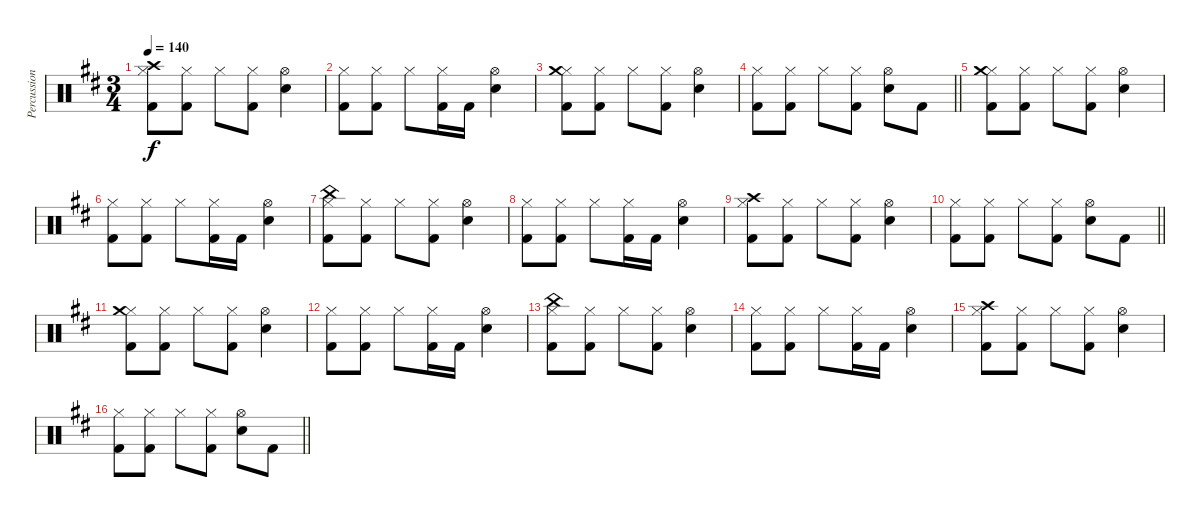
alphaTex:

\track ("Percussions" "Percussion") {instrument percussion}
\staff {score}
\articulation defaults
\ts (3 4)
\tempo 140
\clef neutral
\ks d
("Hi-Hat (closed)" "Crash high (hit)" "Kick (hit) 2").8{dy f volume 14 balance 8} ("Hi-Hat (closed)" "Kick (hit) 2").8 "Hi-Hat (closed)".8 ("Hi-Hat (closed)" "Kick (hit) 2").8 ("Hi-Hat (open)" "Snare (hit) 2").4 |
("Hi-Hat (closed)" "Kick (hit) 2").8 ("Hi-Hat (closed)" "Kick (hit) 2").8 "Hi-Hat (closed)".8 ("Hi-Hat (closed)" "Kick (hit) 2").16 "Kick (hit) 2".16 ("Hi-Hat (open)" "Snare (hit) 2").4 |
("Hi-Hat (closed)" "Crash medium (hit)" "Kick (hit) 2").8 ("Hi-Hat (closed)" "Kick (hit) 2").8 "Hi-Hat (closed)".8 ("Hi-Hat (closed)" "Kick (hit) 2").8 ("Hi-Hat (open)" "Snare (hit) 2").4 |
\barLineRight lightlight
("Hi-Hat (closed)" "Kick (hit) 2").8 ("Hi-Hat (closed)" "Kick (hit) 2").8 "Hi-Hat (closed)".8 ("Hi-Hat (closed)" "Kick (hit) 2").8 ("Hi-Hat (open)" "Snare (hit) 2").8 "Kick (hit) 2".8 |
("Hi-Hat (closed)" "Crash medium (hit)" "Kick (hit) 2").8 ("Hi-Hat (closed)" "Kick (hit) 2").8 "Hi-Hat (closed)".8 ("Hi-Hat (closed)" "Kick (hit) 2").8 ("Hi-Hat (open)" "Snare (hit) 2").4 |
("Hi-Hat (closed)" "Kick (hit) 2").8 ("Hi-Hat (closed)" "Kick (hit) 2").8 "Hi-Hat (closed)".8 ("Hi-Hat (closed)" "Kick (hit) 2").16 "Kick (hit) 2".16 ("Hi-Hat (open)" "Snare (hit) 2").4 |
("Hi-Hat (closed)" "China (hit)" "Kick (hit) 2").8 ("Hi-Hat (closed)" "Kick (hit) 2").8 "Hi-Hat (closed)".8 ("Hi-Hat (closed)" "Kick (hit) 2").8 ("Hi-Hat (open)" "Snare (hit) 2").4 |
("Hi-Hat (closed)" "Kick (hit) 2").8 ("Hi-Hat (closed)" "Kick (hit) 2").8 "Hi-Hat (closed)".8 ("Hi-Hat (closed)" "Kick (hit) 2").16 "Kick (hit) 2".16 ("Hi-Hat (open)" "Snare (hit) 2").4 |
("Hi-Hat (closed)" "Crash high (hit)" "Kick (hit) 2").8 ("Hi-Hat (closed)" "Kick (hit) 2").8 "Hi-Hat (closed)".8 ("Hi-Hat (closed)" "Kick (hit) 2").8 ("Hi-Hat (open)" "Snare (hit) 2").4 |
\barLineRight lightlight
("Hi-Hat (closed)" "Kick (hit) 2").8 ("Hi-Hat (closed)" "Kick (hit) 2").8 "Hi-Hat (closed)".8 ("Hi-Hat (closed)" "Kick (hit) 2").8 ("Hi-Hat (open)" "Snare (hit) 2").8 "Kick (hit) 2".8 |
("Hi-Hat (closed)" "Crash medium (hit)" "Kick (hit) 2").8 ("Hi-Hat (closed)" "Kick (hit) 2").8 "Hi-Hat (closed)".8 ("Hi-Hat (closed)" "Kick (hit) 2").8 ("Hi-Hat (open)" "Snare (hit) 2").4 |
("Hi-Hat (closed)" "Kick (hit) 2").8 ("Hi-Hat (closed)" "Kick (hit) 2").8 "Hi-Hat (closed)".8 ("Hi-Hat (closed)" "Kick (hit) 2").16 "Kick (hit) 2".16 ("Hi-Hat (open)" "Snare (hit) 2").4 |
("Hi-Hat (closed)" "China (hit)" "Kick (hit) 2").8 ("Hi-Hat (closed)" "Kick (hit) 2").8 "Hi-Hat (closed)".8 ("Hi-Hat (closed)" "Kick (hit) 2").8 ("Hi-Hat (open)" "Snare (hit) 2").4 |
("Hi-Hat (closed)" "Kick (hit) 2").8 ("Hi-Hat (closed)" "Kick (hit) 2").8 "Hi-Hat (closed)".8 ("Hi-Hat (closed)" "Kick (hit) 2").16 "Kick (hit) 2".16 ("Hi-Hat (open)" "Snare (hit) 2").4 |
("Hi-Hat (closed)" "Crash high (hit)" "Kick (hit) 2").8 ("Hi-Hat (closed)" "Kick (hit) 2").8 "Hi-Hat (closed)".8 ("Hi-Hat (closed)" "Kick (hit) 2").8 ("Hi-Hat (open)" "Snare (hit) 2").4 |
\barLineRight lightlight
("Hi-Hat (closed)" "Kick (hit) 2").8 ("Hi-Hat (closed)" "Kick (hit) 2").8 "Hi-Hat (closed)".8 ("Hi-Hat (closed)" "Kick (hit) 2").8 ("Hi-Hat (open)" "Snare (hit) 2").8 "Kick (hit) 2".8
